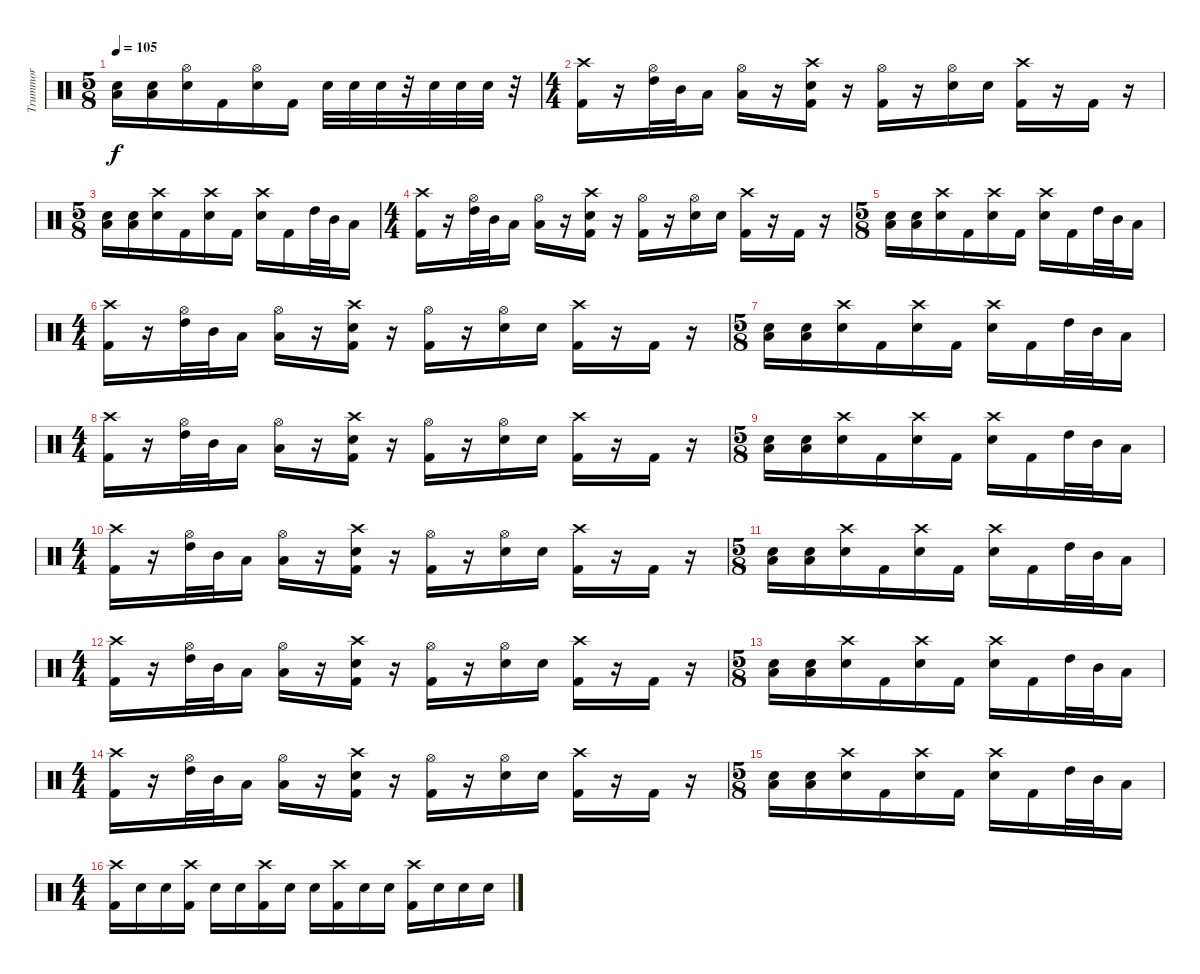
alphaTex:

\track ("Trummor" "Trummor") {instrument percussion}
\staff {score}
\articulation defaults
\ts (5 8)
\tempo 105
\clef neutral
\ks c
("Snare (hit) 2" "Low Floor Tom (hit)").16{dy f} ("Snare (hit) 2" "Low Floor Tom (hit)").16 ("Hi-Hat (open)" "Snare (hit) 2").16 "Kick (hit) 2".16 ("Hi-Hat (open)" "Snare (hit) 2").16 "Kick (hit) 2".16 "Snare (hit) 2".32 "Snare (hit) 2".32 "Snare (hit)".32 r.32 "Snare (hit) 2".32 "Snare (hit) 2".32 "Snare (hit) 2".32 r.32 |
\ts (4 4)
("Crash high (hit)" "Kick (hit) 2").16 r.16 ("Hi-Hat (open)" "High Tom (hit)").32 "Mid Tom (hit)".32 "Low Tom (hit)".16 ("Hi-Hat (open)" "Low Floor Tom (hit)").16 r.16 ("Crash high (hit)" "Snare (hit) 2" "Kick (hit) 2").16 r.16 ("Hi-Hat (open)" "Kick (hit) 2").16 r.16 ("Hi-Hat (open)" "Snare (hit) 2").16 "Snare (hit) 2".16 ("Crash high (hit)" "Kick (hit) 2").16 r.16 "Kick (hit) 2".16 r.16 |
\ts (5 8)
("Snare (hit) 2" "Low Floor Tom (hit)").16 ("Snare (hit) 2" "Low Floor Tom (hit)").16 ("Crash high (hit)" "Snare (hit) 2").16 "Kick (hit) 2".16 ("Crash high (hit)" "Snare (hit) 2").16 "Kick (hit) 2".16 ("Crash high (hit)" "Snare (hit) 2").16 "Kick (hit) 2".16 "High Tom (hit)".32 "Mid Tom (hit)".32 "Low Tom (hit)".16 |
\ts (4 4)
("Crash high (hit)" "Kick (hit) 2").16 r.16 ("Hi-Hat (open)" "High Tom (hit)").32 "Mid Tom (hit)".32 "Low Tom (hit)".16 ("Hi-Hat (open)" "Low Floor Tom (hit)").16 r.16 ("Crash high (hit)" "Snare (hit) 2" "Kick (hit) 2").16 r.16 ("Hi-Hat (open)" "Kick (hit) 2").16 r.16 ("Hi-Hat (open)" "Snare (hit) 2").16 "Snare (hit) 2".16 ("Crash high (hit)" "Kick (hit) 2").16 r.16 "Kick (hit) 2".16 r.16 |
\ts (5 8)
("Snare (hit) 2" "Low Floor Tom (hit)").16 ("Snare (hit) 2" "Low Floor Tom (hit)").16 ("Crash high (hit)" "Snare (hit) 2").16 "Kick (hit) 2".16 ("Crash high (hit)" "Snare (hit) 2").16 "Kick (hit) 2".16 ("Crash high (hit)" "Snare (hit) 2").16 "Kick (hit) 2".16 "High Tom (hit)".32 "Mid Tom (hit)".32 "Low Tom (hit)".16 |
\ts (4 4)
("Crash high (hit)" "Kick (hit) 2").16 r.16 ("Hi-Hat (open)" "High Tom (hit)").32 "Mid Tom (hit)".32 "Low Tom (hit)".16 ("Hi-Hat (open)" "Low Floor Tom (hit)").16 r.16 ("Crash high (hit)" "Snare (hit) 2" "Kick (hit) 2").16 r.16 ("Hi-Hat (open)" "Kick (hit) 2").16 r.16 ("Hi-Hat (open)" "Snare (hit) 2").16 "Snare (hit) 2".16 ("Crash high (hit)" "Kick (hit) 2").16 r.16 "Kick (hit) 2".16 r.16 |
\ts (5 8)
("Snare (hit) 2" "Low Floor Tom (hit)").16 ("Snare (hit) 2" "Low Floor Tom (hit)").16 ("Crash high (hit)" "Snare (hit) 2").16 "Kick (hit) 2".16 ("Crash high (hit)" "Snare (hit) 2").16 "Kick (hit) 2".16 ("Crash high (hit)" "Snare (hit) 2").16 "Kick (hit) 2".16 "High Tom (hit)".32 "Mid Tom (hit)".32 "Low Tom (hit)".16 |
\ts (4 4)
("Crash high (hit)" "Kick (hit) 2").16 r.16 ("Hi-Hat (open)" "High Tom (hit)").32 "Mid Tom (hit)".32 "Low Tom (hit)".16 ("Hi-Hat (open)" "Low Floor Tom (hit)").16 r.16 ("Crash high (hit)" "Snare (hit) 2" "Kick (hit) 2").16 r.16 ("Hi-Hat (open)" "Kick (hit) 2").16 r.16 ("Hi-Hat (open)" "Snare (hit) 2").16 "Snare (hit) 2".16 ("Crash high (hit)" "Kick (hit) 2").16 r.16 "Kick (hit) 2".16 r.16 |
\ts (5 8)
("Snare (hit) 2" "Low Floor Tom (hit)").16 ("Snare (hit) 2" "Low Floor Tom (hit)").16 ("Crash high (hit)" "Snare (hit) 2").16 "Kick (hit) 2".16 ("Crash high (hit)" "Snare (hit) 2").16 "Kick (hit) 2".16 ("Crash high (hit)" "Snare (hit) 2").16 "Kick (hit) 2".16 "High Tom (hit)".32 "Mid Tom (hit)".32 "Low Tom (hit)".16 |
\ts (4 4)
("Crash high (hit)" "Kick (hit) 2").16 r.16 ("Hi-Hat (open)" "High Tom (hit)").32 "Mid Tom (hit)".32 "Low Tom (hit)".16 ("Hi-Hat (open)" "Low Floor Tom (hit)").16 r.16 ("Crash high (hit)" "Snare (hit) 2" "Kick (hit) 2").16 r.16 ("Hi-Hat (open)" "Kick (hit) 2").16 r.16 ("Hi-Hat (open)" "Snare (hit) 2").16 "Snare (hit) 2".16 ("Crash high (hit)" "Kick (hit) 2").16 r.16 "Kick (hit) 2".16 r.16 |
\ts (5 8)
("Snare (hit) 2" "Low Floor Tom (hit)").16 ("Snare (hit) 2" "Low Floor Tom (hit)").16 ("Crash high (hit)" "Snare (hit) 2").16 "Kick (hit) 2".16 ("Crash high (hit)" "Snare (hit) 2").16 "Kick (hit) 2".16 ("Crash high (hit)" "Snare (hit) 2").16 "Kick (hit) 2".16 "High Tom (hit)".32 "Mid Tom (hit)".32 "Low Tom (hit)".16 |
\ts (4 4)
("Crash high (hit)" "Kick (hit) 2").16 r.16 ("Hi-Hat (open)" "High Tom (hit)").32 "Mid Tom (hit)".32 "Low Tom (hit)".16 ("Hi-Hat (open)" "Low Floor Tom (hit)").16 r.16 ("Crash high (hit)" "Snare (hit) 2" "Kick (hit) 2").16 r.16 ("Hi-Hat (open)" "Kick (hit) 2").16 r.16 ("Hi-Hat (open)" "Snare (hit) 2").16 "Snare (hit) 2".16 ("Crash high (hit)" "Kick (hit) 2").16 r.16 "Kick (hit) 2".16 r.16 |
\ts (5 8)
("Snare (hit) 2" "Low Floor Tom (hit)").16 ("Snare (hit) 2" "Low Floor Tom (hit)").16 ("Crash high (hit)" "Snare (hit) 2").16 "Kick (hit) 2".16 ("Crash high (hit)" "Snare (hit) 2").16 "Kick (hit) 2".16 ("Crash high (hit)" "Snare (hit) 2").16 "Kick (hit) 2".16 "High Tom (hit)".32 "Mid Tom (hit)".32 "Low Tom (hit)".16 |
\ts (4 4)
("Crash high (hit)" "Kick (hit) 2").16 r.16 ("Hi-Hat (open)" "High Tom (hit)").32 "Mid Tom (hit)".32 "Low Tom (hit)".16 ("Hi-Hat (open)" "Low Floor Tom (hit)").16 r.16 ("Crash high (hit)" "Snare (hit) 2" "Kick (hit) 2").16 r.16 ("Hi-Hat (open)" "Kick (hit) 2").16 r.16 ("Hi-Hat (open)" "Snare (hit) 2").16 "Snare (hit) 2".16 ("Crash high (hit)" "Kick (hit) 2").16 r.16 "Kick (hit) 2".16 r.16 |
\ts (5 8)
("Snare (hit) 2" "Low Floor Tom (hit)").16 ("Snare (hit) 2" "Low Floor Tom (hit)").16 ("Crash high (hit)" "Snare (hit) 2").16 "Kick (hit) 2".16 ("Crash high (hit)" "Snare (hit) 2").16 "Kick (hit) 2".16 ("Crash high (hit)" "Snare (hit) 2").16 "Kick (hit) 2".16 "High Tom (hit)".32 "Mid Tom (hit)".32 "Low Tom (hit)".16 |
\ts (4 4)
("Crash high (hit)" "Kick (hit) 2").16 "Snare (hit) 2".16 "Snare (hit) 2".16 ("Crash high (hit)" "Kick (hit) 2").16 "Snare (hit) 2".16 "Snare (hit) 2".16 ("Crash high (hit)" "Kick (hit) 2").16 "Snare (hit) 2".16 "Snare (hit) 2".16 ("Crash high (hit)" "Kick (hit) 2").16 "Snare (hit) 2".16 "Snare (hit) 2".16 ("Crash high (hit)" "Kick (hit) 2").16 "Snare (hit) 2".16 "Snare (hit) 2".16 "Snare (hit) 2".16
